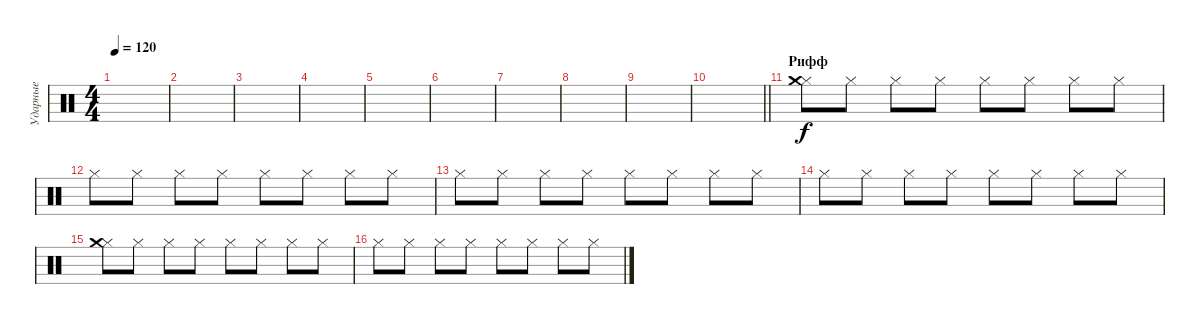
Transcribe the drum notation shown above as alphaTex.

\track ("Ударные" "Ударные") {instrument percussion}
\staff {score}
\articulation defaults
\ts (4 4)
\tempo 120
\clef neutral
\ks c
|
|
|
|
|
|
|
|
|
\barLineRight lightlight
|
\section ("" "Рифф")
("Hi-Hat (closed)" "Crash medium (hit)").8 "Hi-Hat (closed)".8 "Hi-Hat (closed)".8 "Hi-Hat (closed)".8 "Hi-Hat (closed)".8 "Hi-Hat (closed)".8 "Hi-Hat (closed)".8 "Hi-Hat (closed)".8 |
"Hi-Hat (closed)".8 "Hi-Hat (closed)".8 "Hi-Hat (closed)".8 "Hi-Hat (closed)".8 "Hi-Hat (closed)".8 "Hi-Hat (closed)".8 "Hi-Hat (closed)".8 "Hi-Hat (closed)".8 |
"Hi-Hat (closed)".8 "Hi-Hat (closed)".8 "Hi-Hat (closed)".8 "Hi-Hat (closed)".8 "Hi-Hat (closed)".8 "Hi-Hat (closed)".8 "Hi-Hat (closed)".8 "Hi-Hat (closed)".8 |
"Hi-Hat (closed)".8 "Hi-Hat (closed)".8 "Hi-Hat (closed)".8 "Hi-Hat (closed)".8 "Hi-Hat (closed)".8 "Hi-Hat (closed)".8 "Hi-Hat (closed)".8 "Hi-Hat (closed)".8 |
("Hi-Hat (closed)" "Crash medium (hit)").8 "Hi-Hat (closed)".8 "Hi-Hat (closed)".8 "Hi-Hat (closed)".8 "Hi-Hat (closed)".8 "Hi-Hat (closed)".8 "Hi-Hat (closed)".8 "Hi-Hat (closed)".8 |
"Hi-Hat (closed)".8 "Hi-Hat (closed)".8 "Hi-Hat (closed)".8 "Hi-Hat (closed)".8 "Hi-Hat (closed)".8 "Hi-Hat (closed)".8 "Hi-Hat (closed)".8 "Hi-Hat (closed)".8
